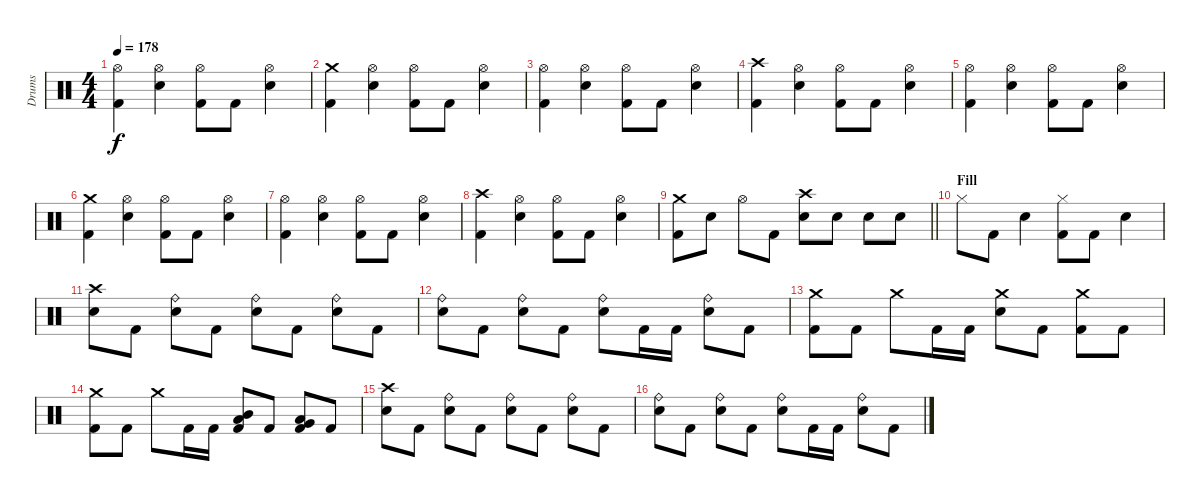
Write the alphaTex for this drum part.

\track ("Drums" "Drums") {instrument percussion}
\staff {score}
\articulation defaults
\ts (4 4)
\tempo 178
\clef neutral
\ks c
("Hi-Hat (open)" "Kick (hit) 2").4{dy f} ("Hi-Hat (open)" "Snare (hit) 2").4 ("Hi-Hat (open)" "Kick (hit) 2").8 "Kick (hit) 2".8 ("Hi-Hat (open)" "Snare (hit) 2").4 |
("Crash medium (hit)" "Kick (hit) 2").4 ("Hi-Hat (open)" "Snare (hit) 2").4 ("Hi-Hat (open)" "Kick (hit) 2").8 "Kick (hit) 2".8 ("Hi-Hat (open)" "Snare (hit) 2").4 |
("Hi-Hat (open)" "Kick (hit) 2").4 ("Hi-Hat (open)" "Snare (hit) 2").4 ("Hi-Hat (open)" "Kick (hit) 2").8 "Kick (hit) 2".8 ("Hi-Hat (open)" "Snare (hit) 2").4 |
("Crash high (hit)" "Kick (hit) 2").4 ("Hi-Hat (open)" "Snare (hit) 2").4 ("Hi-Hat (open)" "Kick (hit) 2").8 "Kick (hit) 2".8 ("Hi-Hat (open)" "Snare (hit) 2").4 |
("Hi-Hat (open)" "Kick (hit) 2").4 ("Hi-Hat (open)" "Snare (hit) 2").4 ("Hi-Hat (open)" "Kick (hit) 2").8 "Kick (hit) 2".8 ("Hi-Hat (open)" "Snare (hit) 2").4 |
("Crash medium (hit)" "Kick (hit) 2").4 ("Hi-Hat (open)" "Snare (hit) 2").4 ("Hi-Hat (open)" "Kick (hit) 2").8 "Kick (hit) 2".8 ("Hi-Hat (open)" "Snare (hit) 2").4 |
("Hi-Hat (open)" "Kick (hit) 2").4 ("Hi-Hat (open)" "Snare (hit) 2").4 ("Hi-Hat (open)" "Kick (hit) 2").8 "Kick (hit) 2".8 ("Hi-Hat (open)" "Snare (hit) 2").4 |
("Crash high (hit)" "Kick (hit) 2").4 ("Hi-Hat (open)" "Snare (hit) 2").4 ("Hi-Hat (open)" "Kick (hit) 2").8 "Kick (hit) 2".8 ("Hi-Hat (open)" "Snare (hit) 2").4 |
\barLineRight lightlight
("Crash medium (hit)" "Kick (hit) 2").8 "Snare (hit) 2".8 "Hi-Hat (open)".8 "Kick (hit) 2".8 ("Crash high (hit)" "Snare (hit) 2").8 "Snare (hit) 2".8 "Snare (hit) 2".8 "Snare (hit) 2".8 |
\section ("" "Fill")
"Hi-Hat (closed)".8{volume 10} "Kick (hit) 2".8 "Snare (hit) 2".4 ("Hi-Hat (closed)" "Kick (hit) 2").8 "Kick (hit) 2".8 "Snare (hit) 2".4 |
("Crash high (hit)" "Snare (hit) 2").8{volume 14} "Kick (hit) 2".8 ("Ride (bell)" "Snare (hit) 2").8 "Kick (hit) 2".8 ("Ride (bell)" "Snare (hit) 2").8 "Kick (hit) 2".8 ("Ride (bell)" "Snare (hit) 2").8 "Kick (hit) 2".8 |
("Ride (bell)" "Snare (hit) 2").8 "Kick (hit) 2".8 ("Ride (bell)" "Snare (hit) 2").8 "Kick (hit) 2".8 ("Ride (bell)" "Snare (hit) 2").8 "Kick (hit) 2".16 "Kick (hit) 2".16 ("Ride (bell)" "Snare (hit) 2").8 "Kick (hit) 2".8 |
("Crash medium (hit)" "Kick (hit) 2").8 "Kick (hit) 2".8 "Crash medium (hit)".8 "Kick (hit) 2".16 "Kick (hit) 2".16 ("Crash medium (hit)" "Snare (hit) 2").8 "Kick (hit) 2".8 ("Crash medium (hit)" "Kick (hit) 2").8 "Kick (hit) 2".8 |
("Crash medium (hit)" "Kick (hit) 2").8 "Kick (hit) 2".8 "Crash medium (hit)".8 "Kick (hit) 2".16 "Kick (hit) 2".16 ("Low Tom (hit)" "Mid Tom (hit)" "Kick (hit) 2").8 "Kick (hit) 2".8 ("Low Tom (hit)" "Very Low Tom (hit)" "Kick (hit) 2").8 "Kick (hit) 2".8 |
("Crash high (hit)" "Snare (hit) 2").8 "Kick (hit) 2".8 ("Ride (bell)" "Snare (hit) 2").8 "Kick (hit) 2".8 ("Ride (bell)" "Snare (hit) 2").8 "Kick (hit) 2".8 ("Ride (bell)" "Snare (hit) 2").8 "Kick (hit) 2".8 |
("Ride (bell)" "Snare (hit) 2").8 "Kick (hit) 2".8 ("Ride (bell)" "Snare (hit) 2").8 "Kick (hit) 2".8 ("Ride (bell)" "Snare (hit) 2").8 "Kick (hit) 2".16 "Kick (hit) 2".16 ("Ride (bell)" "Snare (hit) 2").8 "Kick (hit) 2".8
